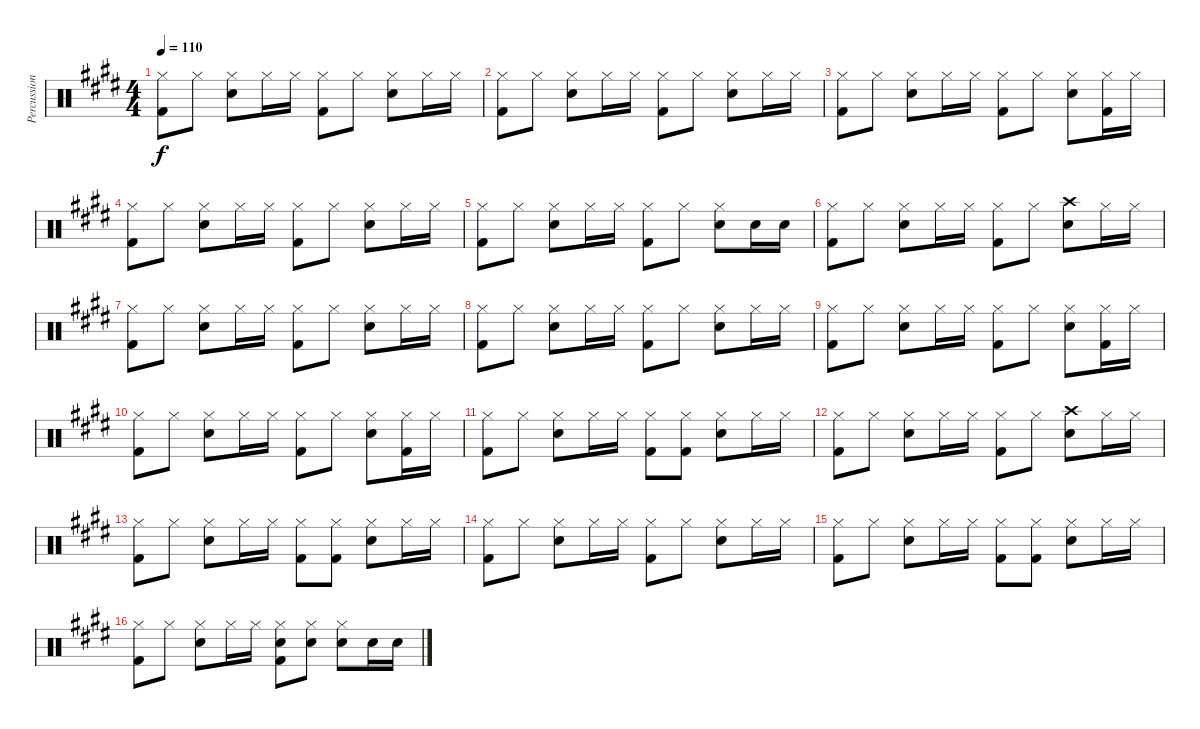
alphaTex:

\track ("Percussion" "Percussion") {instrument percussion}
\staff {score}
\articulation defaults
\ts (4 4)
\tempo 110
\clef neutral
\ks e
("Hi-Hat (closed)" "Kick (hit) 2").8{dy f} "Hi-Hat (closed)".8 ("Hi-Hat (closed)" "Snare (hit) 2").8 "Hi-Hat (closed)".16 "Hi-Hat (closed)".16 ("Hi-Hat (closed)" "Kick (hit) 2").8 "Hi-Hat (closed)".8 ("Hi-Hat (closed)" "Snare (hit) 2").8 "Hi-Hat (closed)".16 "Hi-Hat (closed)".16 |
("Hi-Hat (closed)" "Kick (hit) 2").8 "Hi-Hat (closed)".8 ("Hi-Hat (closed)" "Snare (hit) 2").8 "Hi-Hat (closed)".16 "Hi-Hat (closed)".16 ("Hi-Hat (closed)" "Kick (hit) 2").8 "Hi-Hat (closed)".8 ("Hi-Hat (closed)" "Snare (hit) 2").8 "Hi-Hat (closed)".16 "Hi-Hat (closed)".16 |
("Hi-Hat (closed)" "Kick (hit) 2").8 "Hi-Hat (closed)".8 ("Hi-Hat (closed)" "Snare (hit) 2").8 "Hi-Hat (closed)".16 "Hi-Hat (closed)".16 ("Hi-Hat (closed)" "Kick (hit) 2").8 "Hi-Hat (closed)".8 ("Hi-Hat (closed)" "Snare (hit) 2").8 ("Hi-Hat (closed)" "Kick (hit) 2").16 "Hi-Hat (closed)".16 |
("Hi-Hat (closed)" "Kick (hit) 2").8 "Hi-Hat (closed)".8 ("Hi-Hat (closed)" "Snare (hit) 2").8 "Hi-Hat (closed)".16 "Hi-Hat (closed)".16 ("Hi-Hat (closed)" "Kick (hit) 2").8 "Hi-Hat (closed)".8 ("Hi-Hat (closed)" "Snare (hit) 2").8 "Hi-Hat (closed)".16 "Hi-Hat (closed)".16 |
("Hi-Hat (closed)" "Kick (hit) 2").8 "Hi-Hat (closed)".8 ("Hi-Hat (closed)" "Snare (hit) 2").8 "Hi-Hat (closed)".16 "Hi-Hat (closed)".16 ("Hi-Hat (closed)" "Kick (hit) 2").8 "Hi-Hat (closed)".8 ("Hi-Hat (closed)" "Snare (hit) 2").8 "Snare (hit) 2".16 "Snare (hit) 2".16 |
("Hi-Hat (closed)" "Kick (hit) 2").8 "Hi-Hat (closed)".8 ("Hi-Hat (closed)" "Snare (hit) 2").8 "Hi-Hat (closed)".16 "Hi-Hat (closed)".16 ("Hi-Hat (closed)" "Kick (hit) 2").8 "Hi-Hat (closed)".8 ("Crash high (hit)" "Snare (hit) 2").8 "Hi-Hat (closed)".16 "Hi-Hat (closed)".16 |
("Hi-Hat (closed)" "Kick (hit) 2").8 "Hi-Hat (closed)".8 ("Hi-Hat (closed)" "Snare (hit) 2").8 "Hi-Hat (closed)".16 "Hi-Hat (closed)".16 ("Hi-Hat (closed)" "Kick (hit) 2").8 "Hi-Hat (closed)".8 ("Hi-Hat (closed)" "Snare (hit) 2").8 "Hi-Hat (closed)".16 "Hi-Hat (closed)".16 |
("Hi-Hat (closed)" "Kick (hit) 2").8 "Hi-Hat (closed)".8 ("Hi-Hat (closed)" "Snare (hit) 2").8 "Hi-Hat (closed)".16 "Hi-Hat (closed)".16 ("Hi-Hat (closed)" "Kick (hit) 2").8 "Hi-Hat (closed)".8 ("Hi-Hat (closed)" "Snare (hit) 2").8 "Hi-Hat (closed)".16 "Hi-Hat (closed)".16 |
("Hi-Hat (closed)" "Kick (hit) 2").8 "Hi-Hat (closed)".8 ("Hi-Hat (closed)" "Snare (hit) 2").8 "Hi-Hat (closed)".16 "Hi-Hat (closed)".16 ("Hi-Hat (closed)" "Kick (hit) 2").8 "Hi-Hat (closed)".8 ("Hi-Hat (closed)" "Snare (hit) 2").8 ("Hi-Hat (closed)" "Kick (hit) 2").16 "Hi-Hat (closed)".16 |
("Hi-Hat (closed)" "Kick (hit) 2").8 "Hi-Hat (closed)".8 ("Hi-Hat (closed)" "Snare (hit) 2").8 "Hi-Hat (closed)".16 "Hi-Hat (closed)".16 ("Hi-Hat (closed)" "Kick (hit) 2").8 "Hi-Hat (closed)".8 ("Hi-Hat (closed)" "Snare (hit) 2").8 ("Hi-Hat (closed)" "Kick (hit) 2").16 "Hi-Hat (closed)".16 |
("Hi-Hat (closed)" "Kick (hit) 2").8 "Hi-Hat (closed)".8 ("Hi-Hat (closed)" "Snare (hit) 2").8 "Hi-Hat (closed)".16 "Hi-Hat (closed)".16 ("Hi-Hat (closed)" "Kick (hit) 2").8 ("Hi-Hat (closed)" "Kick (hit) 2").8 ("Hi-Hat (closed)" "Snare (hit) 2").8 "Hi-Hat (closed)".16 "Hi-Hat (closed)".16 |
("Hi-Hat (closed)" "Kick (hit) 2").8 "Hi-Hat (closed)".8 ("Hi-Hat (closed)" "Snare (hit) 2").8 "Hi-Hat (closed)".16 "Hi-Hat (closed)".16 ("Hi-Hat (closed)" "Kick (hit) 2").8 "Hi-Hat (closed)".8 ("Crash high (hit)" "Snare (hit) 2").8 "Hi-Hat (closed)".16 "Hi-Hat (closed)".16 |
("Hi-Hat (closed)" "Kick (hit) 2").8 "Hi-Hat (closed)".8 ("Hi-Hat (closed)" "Snare (hit) 2").8 "Hi-Hat (closed)".16 "Hi-Hat (closed)".16 ("Hi-Hat (closed)" "Kick (hit) 2").8 ("Hi-Hat (closed)" "Kick (hit) 2").8 ("Hi-Hat (closed)" "Snare (hit) 2").8 "Hi-Hat (closed)".16 "Hi-Hat (closed)".16 |
("Hi-Hat (closed)" "Kick (hit) 2").8 "Hi-Hat (closed)".8 ("Hi-Hat (closed)" "Snare (hit) 2").8 "Hi-Hat (closed)".16 "Hi-Hat (closed)".16 ("Hi-Hat (closed)" "Kick (hit) 2").8 "Hi-Hat (closed)".8 ("Hi-Hat (closed)" "Snare (hit) 2").8 "Hi-Hat (closed)".16 "Hi-Hat (closed)".16 |
("Hi-Hat (closed)" "Kick (hit) 2").8 "Hi-Hat (closed)".8 ("Hi-Hat (closed)" "Snare (hit) 2").8 "Hi-Hat (closed)".16 "Hi-Hat (closed)".16 ("Hi-Hat (closed)" "Kick (hit) 2").8 ("Hi-Hat (closed)" "Kick (hit) 2").8 ("Hi-Hat (closed)" "Snare (hit) 2").8 "Hi-Hat (closed)".16 "Hi-Hat (closed)".16 |
("Hi-Hat (closed)" "Kick (hit) 2").8 "Hi-Hat (closed)".8 ("Hi-Hat (closed)" "Snare (hit) 2").8 "Hi-Hat (closed)".16 "Hi-Hat (closed)".16 ("Hi-Hat (closed)" "Snare (hit) 2" "Kick (hit) 2").8 ("Hi-Hat (closed)" "Snare (hit) 2").8 ("Hi-Hat (closed)" "Snare (hit) 2").8 "Snare (hit) 2".16 "Snare (hit) 2".16
